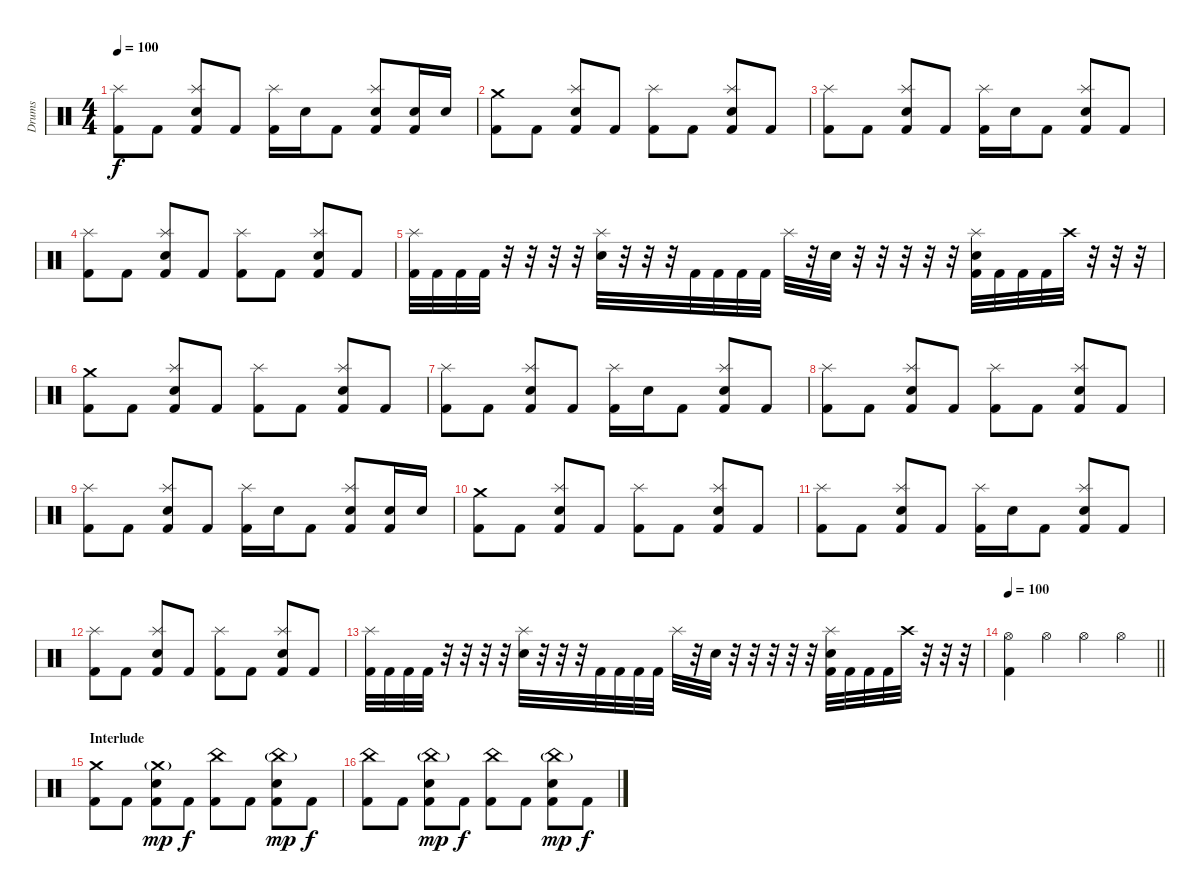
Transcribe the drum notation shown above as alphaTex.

\track ("Drums" "Drums") {instrument percussion}
\staff {score}
\articulation defaults
\ts (4 4)
\tempo 100
\clef neutral
\ks c
("Kick (hit) 2" "Splash (hit)").8{dy f} "Kick (hit) 2".8 ("Kick (hit) 2" "Snare (hit) 2" "Splash (hit)").8 "Kick (hit) 2".8 ("Kick (hit) 2" "Splash (hit)").16 "Snare (hit) 2".16 "Kick (hit) 2".8 ("Kick (hit) 2" "Snare (hit) 2" "Splash (hit)").8 ("Kick (hit) 2" "Snare (hit) 2").16 "Snare (hit) 2".16 |
("Kick (hit) 2" "Crash medium (hit)").8 "Kick (hit) 2".8 ("Kick (hit) 2" "Snare (hit) 2" "Splash (hit)").8 "Kick (hit) 2".8 ("Kick (hit) 2" "Splash (hit)").8 "Kick (hit) 2".8 ("Kick (hit) 2" "Snare (hit) 2" "Splash (hit)").8 "Kick (hit) 2".8 |
("Kick (hit) 2" "Splash (hit)").8 "Kick (hit) 2".8 ("Kick (hit) 2" "Snare (hit) 2" "Splash (hit)").8 "Kick (hit) 2".8 ("Kick (hit) 2" "Splash (hit)").16 "Snare (hit) 2".16 "Kick (hit) 2".8 ("Kick (hit) 2" "Snare (hit) 2" "Splash (hit)").8 "Kick (hit) 2".8 |
("Kick (hit) 2" "Splash (hit)").8 "Kick (hit) 2".8 ("Kick (hit) 2" "Snare (hit) 2" "Splash (hit)").8 "Kick (hit) 2".8 ("Kick (hit) 2" "Splash (hit)").8 "Kick (hit) 2".8 ("Kick (hit) 2" "Snare (hit) 2" "Splash (hit)").8 "Kick (hit) 2".8 |
("Kick (hit) 2" "Splash (hit)").32 "Kick (hit) 2".32 "Kick (hit) 2".32 "Kick (hit) 2".32 r.32 r.32 r.32 r.32 ("Snare (hit) 2" "Splash (hit)").32 r.32 r.32 r.32 "Kick (hit) 2".32 "Kick (hit) 2".32 "Kick (hit) 2".32 "Kick (hit) 2".32 "Splash (hit)".32 r.32 "Snare (hit) 2".32 r.32 r.32 r.32 r.32 r.32 ("Kick (hit) 2" "Snare (hit) 2" "Splash (hit)").32 "Kick (hit) 2".32 "Kick (hit) 2".32 "Kick (hit) 2".32 "Crash high (hit)".32 r.32 r.32 r.32 |
("Kick (hit) 2" "Crash medium (hit)").8 "Kick (hit) 2".8 ("Kick (hit) 2" "Snare (hit) 2" "Splash (hit)").8 "Kick (hit) 2".8 ("Kick (hit) 2" "Splash (hit)").8 "Kick (hit) 2".8 ("Kick (hit) 2" "Snare (hit) 2" "Splash (hit)").8 "Kick (hit) 2".8 |
("Kick (hit) 2" "Splash (hit)").8 "Kick (hit) 2".8 ("Kick (hit) 2" "Snare (hit) 2" "Splash (hit)").8 "Kick (hit) 2".8 ("Kick (hit) 2" "Splash (hit)").16 "Snare (hit) 2".16 "Kick (hit) 2".8 ("Kick (hit) 2" "Snare (hit) 2" "Splash (hit)").8 "Kick (hit) 2".8 |
("Kick (hit) 2" "Splash (hit)").8 "Kick (hit) 2".8 ("Kick (hit) 2" "Snare (hit) 2" "Splash (hit)").8 "Kick (hit) 2".8 ("Kick (hit) 2" "Splash (hit)").8 "Kick (hit) 2".8 ("Kick (hit) 2" "Snare (hit) 2" "Splash (hit)").8 "Kick (hit) 2".8 |
("Kick (hit) 2" "Splash (hit)").8 "Kick (hit) 2".8 ("Kick (hit) 2" "Snare (hit) 2" "Splash (hit)").8 "Kick (hit) 2".8 ("Kick (hit) 2" "Splash (hit)").16 "Snare (hit) 2".16 "Kick (hit) 2".8 ("Kick (hit) 2" "Snare (hit) 2" "Splash (hit)").8 ("Kick (hit) 2" "Snare (hit) 2").16 "Snare (hit) 2".16 |
("Kick (hit) 2" "Crash medium (hit)").8 "Kick (hit) 2".8 ("Kick (hit) 2" "Snare (hit) 2" "Splash (hit)").8 "Kick (hit) 2".8 ("Kick (hit) 2" "Splash (hit)").8 "Kick (hit) 2".8 ("Kick (hit) 2" "Snare (hit) 2" "Splash (hit)").8 "Kick (hit) 2".8 |
("Kick (hit) 2" "Splash (hit)").8 "Kick (hit) 2".8 ("Kick (hit) 2" "Snare (hit) 2" "Splash (hit)").8 "Kick (hit) 2".8 ("Kick (hit) 2" "Splash (hit)").16 "Snare (hit) 2".16 "Kick (hit) 2".8 ("Kick (hit) 2" "Snare (hit) 2" "Splash (hit)").8 "Kick (hit) 2".8 |
("Kick (hit) 2" "Splash (hit)").8 "Kick (hit) 2".8 ("Kick (hit) 2" "Snare (hit) 2" "Splash (hit)").8 "Kick (hit) 2".8 ("Kick (hit) 2" "Splash (hit)").8 "Kick (hit) 2".8 ("Kick (hit) 2" "Snare (hit) 2" "Splash (hit)").8 "Kick (hit) 2".8 |
("Kick (hit) 2" "Splash (hit)").32 "Kick (hit) 2".32 "Kick (hit) 2".32 "Kick (hit) 2".32 r.32 r.32 r.32 r.32 ("Snare (hit) 2" "Splash (hit)").32 r.32 r.32 r.32 "Kick (hit) 2".32 "Kick (hit) 2".32 "Kick (hit) 2".32 "Kick (hit) 2".32 "Splash (hit)".32 r.32 "Snare (hit) 2".32 r.32 r.32 r.32 r.32 r.32 ("Kick (hit) 2" "Snare (hit) 2" "Splash (hit)").32 "Kick (hit) 2".32 "Kick (hit) 2".32 "Kick (hit) 2".32 "Crash high (hit)".32 r.32 r.32 r.32 |
\tempo 100
\barLineRight lightlight
("Kick (hit) 2" "Hi-Hat (open)").4 "Hi-Hat (open)".4 "Hi-Hat (open)".4 "Hi-Hat (open)".4 |
\section ("" "Interlude")
("Kick (hit) 2" "Crash medium (hit)").8 "Kick (hit) 2".8 ("Kick (hit) 2" "Snare (hit) 2" "Crash medium (hit)"{g}).8{dy mp} "Kick (hit) 2".8{dy f} ("Kick (hit) 2" "China (hit)").8 "Kick (hit) 2".8 ("Kick (hit) 2" "Snare (hit) 2" "China (hit)"{g}).8{dy mp} "Kick (hit) 2".8{dy f} |
("Kick (hit) 2" "China (hit)").8 "Kick (hit) 2".8 ("Kick (hit) 2" "Snare (hit) 2" "China (hit)"{g}).8{dy mp} "Kick (hit) 2".8{dy f} ("Kick (hit) 2" "China (hit)").8 "Kick (hit) 2".8 ("Kick (hit) 2" "Snare (hit) 2" "China (hit)"{g}).8{dy mp} "Kick (hit) 2".8{dy f}
